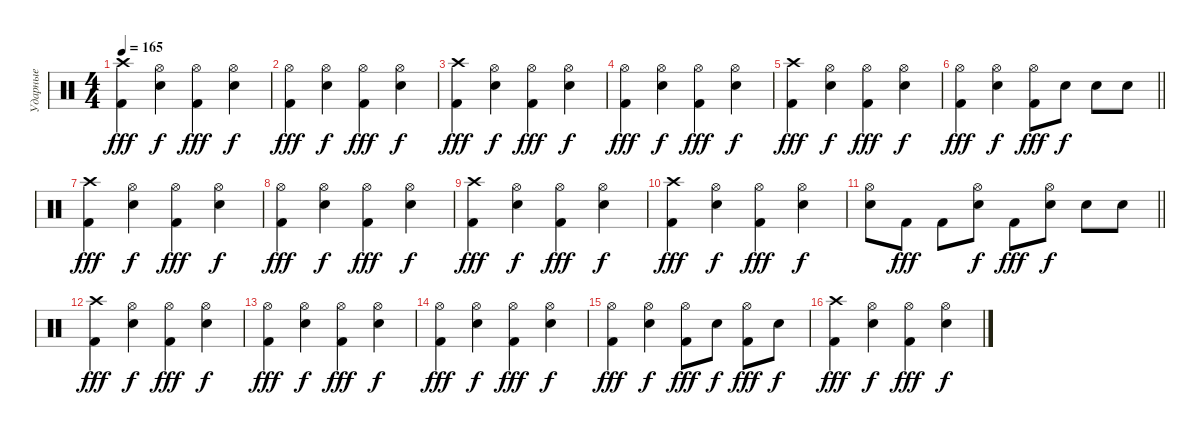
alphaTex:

\track ("Ударные" "Ударные") {instrument percussion}
\staff {score}
\articulation defaults
\ts (4 4)
\tempo 165
\clef neutral
\ks c
("Kick (hit) 2" "Crash high (hit)").4{dy fff} ("Snare (hit) 2" "Hi-Hat (open)").4{dy f} ("Kick (hit) 2" "Hi-Hat (open)").4{dy fff} ("Snare (hit) 2" "Hi-Hat (open)").4{dy f} |
("Kick (hit) 2" "Hi-Hat (open)").4{dy fff} ("Snare (hit) 2" "Hi-Hat (open)").4{dy f} ("Kick (hit) 2" "Hi-Hat (open)").4{dy fff} ("Snare (hit) 2" "Hi-Hat (open)").4{dy f} |
("Kick (hit) 2" "Crash high (hit)").4{dy fff} ("Snare (hit) 2" "Hi-Hat (open)").4{dy f} ("Kick (hit) 2" "Hi-Hat (open)").4{dy fff} ("Snare (hit) 2" "Hi-Hat (open)").4{dy f} |
("Kick (hit) 2" "Hi-Hat (open)").4{dy fff} ("Snare (hit) 2" "Hi-Hat (open)").4{dy f} ("Kick (hit) 2" "Hi-Hat (open)").4{dy fff} ("Snare (hit) 2" "Hi-Hat (open)").4{dy f} |
("Kick (hit) 2" "Crash high (hit)").4{dy fff} ("Snare (hit) 2" "Hi-Hat (open)").4{dy f} ("Kick (hit) 2" "Hi-Hat (open)").4{dy fff} ("Snare (hit) 2" "Hi-Hat (open)").4{dy f} |
\barLineRight lightlight
("Kick (hit) 2" "Hi-Hat (open)").4{dy fff} ("Snare (hit) 2" "Hi-Hat (open)").4{dy f} ("Kick (hit) 2" "Hi-Hat (open)").8{dy fff} "Snare (hit) 2".8{dy f} "Snare (hit) 2".8 "Snare (hit) 2".8 |
("Kick (hit) 2" "Crash high (hit)").4{dy fff} ("Snare (hit) 2" "Hi-Hat (open)").4{dy f} ("Kick (hit) 2" "Hi-Hat (open)").4{dy fff} ("Snare (hit) 2" "Hi-Hat (open)").4{dy f} |
("Kick (hit) 2" "Hi-Hat (open)").4{dy fff} ("Snare (hit) 2" "Hi-Hat (open)").4{dy f} ("Kick (hit) 2" "Hi-Hat (open)").4{dy fff} ("Snare (hit) 2" "Hi-Hat (open)").4{dy f} |
("Kick (hit) 2" "Crash high (hit)").4{dy fff} ("Snare (hit) 2" "Hi-Hat (open)").4{dy f} ("Kick (hit) 2" "Hi-Hat (open)").4{dy fff} ("Snare (hit) 2" "Hi-Hat (open)").4{dy f} |
("Kick (hit) 2" "Crash high (hit)").4{dy fff} ("Snare (hit) 2" "Hi-Hat (open)").4{dy f} ("Kick (hit) 2" "Hi-Hat (open)").4{dy fff} ("Snare (hit) 2" "Hi-Hat (open)").4{dy f} |
\barLineRight lightlight
("Snare (hit) 2" "Hi-Hat (open)").8 "Kick (hit) 2".8{dy fff} "Kick (hit) 2".8 ("Snare (hit) 2" "Hi-Hat (open)").8{dy f} "Kick (hit) 2".8{dy fff} ("Snare (hit) 2" "Hi-Hat (open)").8{dy f} "Snare (hit) 2".8 "Snare (hit) 2".8 |
("Kick (hit) 2" "Crash high (hit)").4{dy fff} ("Snare (hit) 2" "Hi-Hat (open)").4{dy f} ("Kick (hit) 2" "Hi-Hat (open)").4{dy fff} ("Snare (hit) 2" "Hi-Hat (open)").4{dy f} |
("Kick (hit) 2" "Hi-Hat (open)").4{dy fff} ("Snare (hit) 2" "Hi-Hat (open)").4{dy f} ("Kick (hit) 2" "Hi-Hat (open)").4{dy fff} ("Snare (hit) 2" "Hi-Hat (open)").4{dy f} |
("Kick (hit) 2" "Hi-Hat (open)").4{dy fff} ("Snare (hit) 2" "Hi-Hat (open)").4{dy f} ("Kick (hit) 2" "Hi-Hat (open)").4{dy fff} ("Snare (hit) 2" "Hi-Hat (open)").4{dy f} |
("Kick (hit) 2" "Hi-Hat (open)").4{dy fff} ("Snare (hit) 2" "Hi-Hat (open)").4{dy f} ("Kick (hit) 2" "Hi-Hat (open)").8{dy fff} "Snare (hit) 2".8{dy f} ("Kick (hit) 2" "Hi-Hat (open)").8{dy fff} "Snare (hit) 2".8{dy f} |
("Kick (hit) 2" "Crash high (hit)").4{dy fff} ("Snare (hit) 2" "Hi-Hat (open)").4{dy f} ("Kick (hit) 2" "Hi-Hat (open)").4{dy fff} ("Snare (hit) 2" "Hi-Hat (open)").4{dy f}
